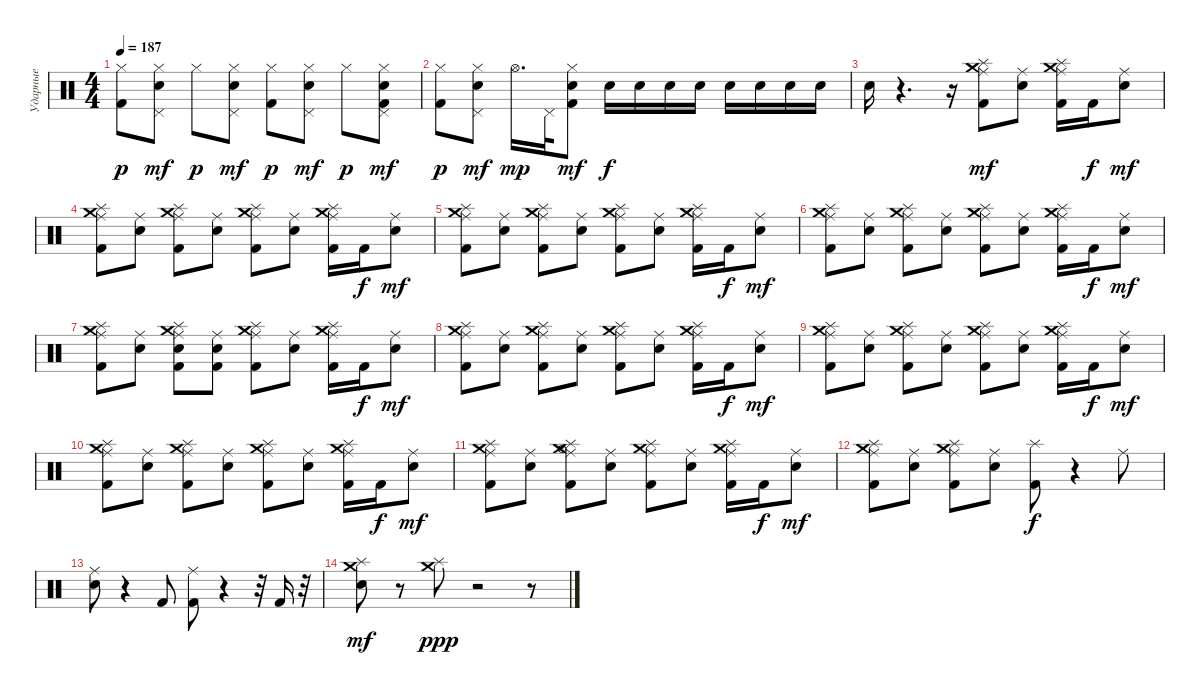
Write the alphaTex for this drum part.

\track ("Ударные" "Ударные") {instrument percussion}
\staff {score}
\articulation defaults
\ts (4 4)
\tempo 187
\clef neutral
\ks c
("Hi-Hat (closed)" "Kick (hit) 2").8{dy p} ("Pedal Hi-Hat (hit)" "Hi-Hat (closed)" "Electric Snare (hit)").8{dy mf} "Hi-Hat (closed)".8{dy p} ("Pedal Hi-Hat (hit)" "Hi-Hat (closed)" "Electric Snare (hit)").8{dy mf} ("Hi-Hat (closed)" "Kick (hit) 2").8{dy p} ("Pedal Hi-Hat (hit)" "Hi-Hat (closed)" "Electric Snare (hit)").8{dy mf} "Hi-Hat (closed)".8{dy p} ("Pedal Hi-Hat (hit)" "Hi-Hat (closed)" "Electric Snare (hit)" "Kick (hit) 2").8{dy mf} |
("Hi-Hat (closed)" "Kick (hit) 2").8{dy p} ("Pedal Hi-Hat (hit)" "Hi-Hat (closed)" "Electric Snare (hit)").8{dy mf} "Hi-Hat (open)".16{d dy mp} "Pedal Hi-Hat (hit)".32 ("Hi-Hat (closed)" "Kick (hit) 2" "Electric Snare (hit)").8{dy mf} "Electric Snare (hit)".16{dy f} "Electric Snare (hit)".16 "Electric Snare (hit)".16 "Electric Snare (hit)".16 "Electric Snare (hit)".16 "Electric Snare (hit)".16 "Electric Snare (hit)".16 "Electric Snare (hit)".16 |
"Electric Snare (hit)".16 r.4{d} r.16 ("Ride (middle)" "Crash medium (hit)" "Splash (hit)" "Kick (hit) 2").8{dy mf} ("Ride (middle)" "Electric Snare (hit)").8 ("Ride (middle)" "Crash medium (hit)" "Splash (hit)" "Kick (hit) 2").16 "Kick (hit) 2".16{dy f} ("Ride (middle)" "Electric Snare (hit)").8{dy mf} |
("Ride (middle)" "Crash medium (hit)" "Splash (hit)" "Kick (hit) 2").8 ("Ride (middle)" "Electric Snare (hit)").8 ("Ride (middle)" "Crash medium (hit)" "Splash (hit)" "Kick (hit) 2").8 ("Ride (middle)" "Electric Snare (hit)").8 ("Ride (middle)" "Crash medium (hit)" "Splash (hit)" "Kick (hit) 2").8 ("Ride (middle)" "Electric Snare (hit)").8 ("Ride (middle)" "Crash medium (hit)" "Splash (hit)" "Kick (hit) 2").16 "Kick (hit) 2".16{dy f} ("Ride (middle)" "Electric Snare (hit)").8{dy mf} |
("Ride (middle)" "Crash medium (hit)" "Splash (hit)" "Kick (hit) 2").8 ("Ride (middle)" "Electric Snare (hit)").8 ("Ride (middle)" "Crash medium (hit)" "Splash (hit)" "Kick (hit) 2").8 ("Ride (middle)" "Electric Snare (hit)").8 ("Ride (middle)" "Crash medium (hit)" "Splash (hit)" "Kick (hit) 2").8 ("Ride (middle)" "Electric Snare (hit)").8 ("Ride (middle)" "Crash medium (hit)" "Splash (hit)" "Kick (hit) 2").16 "Kick (hit) 2".16{dy f} ("Ride (middle)" "Electric Snare (hit)").8{dy mf} |
("Ride (middle)" "Crash medium (hit)" "Splash (hit)" "Kick (hit) 2").8 ("Ride (middle)" "Electric Snare (hit)").8 ("Ride (middle)" "Crash medium (hit)" "Splash (hit)" "Kick (hit) 2").8 ("Ride (middle)" "Electric Snare (hit)").8 ("Ride (middle)" "Crash medium (hit)" "Splash (hit)" "Kick (hit) 2").8 ("Ride (middle)" "Electric Snare (hit)").8 ("Ride (middle)" "Crash medium (hit)" "Splash (hit)" "Kick (hit) 2").16 "Kick (hit) 2".16{dy f} ("Ride (middle)" "Electric Snare (hit)").8{dy mf} |
("Ride (middle)" "Crash medium (hit)" "Splash (hit)" "Kick (hit) 2").8 ("Ride (middle)" "Electric Snare (hit)").8 ("Kick (hit) 2" "Ride (middle)" "Crash medium (hit)" "Splash (hit)" "Electric Snare (hit)").8 ("Kick (hit) 2" "Ride (middle)" "Electric Snare (hit)").8 ("Ride (middle)" "Crash medium (hit)" "Splash (hit)" "Kick (hit) 2").8 ("Ride (middle)" "Electric Snare (hit)").8 ("Ride (middle)" "Crash medium (hit)" "Splash (hit)" "Kick (hit) 2").16 "Kick (hit) 2".16{dy f} ("Ride (middle)" "Electric Snare (hit)").8{dy mf} |
("Ride (middle)" "Crash medium (hit)" "Splash (hit)" "Kick (hit) 2").8 ("Ride (middle)" "Electric Snare (hit)").8 ("Ride (middle)" "Crash medium (hit)" "Splash (hit)" "Kick (hit) 2").8 ("Ride (middle)" "Electric Snare (hit)").8 ("Ride (middle)" "Crash medium (hit)" "Splash (hit)" "Kick (hit) 2").8 ("Ride (middle)" "Electric Snare (hit)").8 ("Ride (middle)" "Crash medium (hit)" "Splash (hit)" "Kick (hit) 2").16 "Kick (hit) 2".16{dy f} ("Ride (middle)" "Electric Snare (hit)").8{dy mf} |
("Ride (middle)" "Crash medium (hit)" "Splash (hit)" "Kick (hit) 2").8 ("Ride (middle)" "Electric Snare (hit)").8 ("Ride (middle)" "Crash medium (hit)" "Splash (hit)" "Kick (hit) 2").8 ("Ride (middle)" "Electric Snare (hit)").8 ("Ride (middle)" "Crash medium (hit)" "Splash (hit)" "Kick (hit) 2").8 ("Ride (middle)" "Electric Snare (hit)").8 ("Ride (middle)" "Crash medium (hit)" "Splash (hit)" "Kick (hit) 2").16 "Kick (hit) 2".16{dy f} ("Ride (middle)" "Electric Snare (hit)").8{dy mf} |
("Ride (middle)" "Crash medium (hit)" "Splash (hit)" "Kick (hit) 2").8 ("Ride (middle)" "Electric Snare (hit)").8 ("Ride (middle)" "Crash medium (hit)" "Splash (hit)" "Kick (hit) 2").8 ("Ride (middle)" "Electric Snare (hit)").8 ("Ride (middle)" "Crash medium (hit)" "Splash (hit)" "Kick (hit) 2").8 ("Ride (middle)" "Electric Snare (hit)").8 ("Ride (middle)" "Crash medium (hit)" "Splash (hit)" "Kick (hit) 2").16 "Kick (hit) 2".16{dy f} ("Ride (middle)" "Electric Snare (hit)").8{dy mf} |
("Ride (middle)" "Crash medium (hit)" "Splash (hit)" "Kick (hit) 2").8 ("Ride (middle)" "Electric Snare (hit)").8 ("Hi-Hat (open)" "Ride (middle)" "Crash medium (hit)" "Splash (hit)" "Kick (hit) 2").8 ("Ride (middle)" "Electric Snare (hit)").8 ("Ride (middle)" "Crash medium (hit)" "Splash (hit)" "Kick (hit) 2").8 ("Ride (middle)" "Electric Snare (hit)").8 ("Ride (middle)" "Crash medium (hit)" "Splash (hit)" "Kick (hit) 2").16 "Kick (hit) 2".16{dy f} ("Ride (middle)" "Electric Snare (hit)").8{dy mf} |
("Ride (middle)" "Crash medium (hit)" "Splash (hit)" "Kick (hit) 2").8 ("Ride (middle)" "Electric Snare (hit)").8 ("Ride (middle)" "Crash medium (hit)" "Splash (hit)" "Kick (hit) 2").8 ("Ride (middle)" "Electric Snare (hit)").8 ("Splash (hit)" "Kick (hit) 2").8{dy f} r.4 "Ride (middle)".8 |
("Ride (middle)" "Electric Snare (hit)").8 r.4 "Kick (hit) 2".8 ("Ride (middle)" "Kick (hit) 2").8 r.4 r.32 "Kick (hit) 2".16 r.32 |
("Splash (hit)" "Crash medium (hit)" "Electric Snare (hit)").8{dy mf} r.8 ("Splash (hit)" "Crash medium (hit)").8{dy ppp} r.2 r.8
